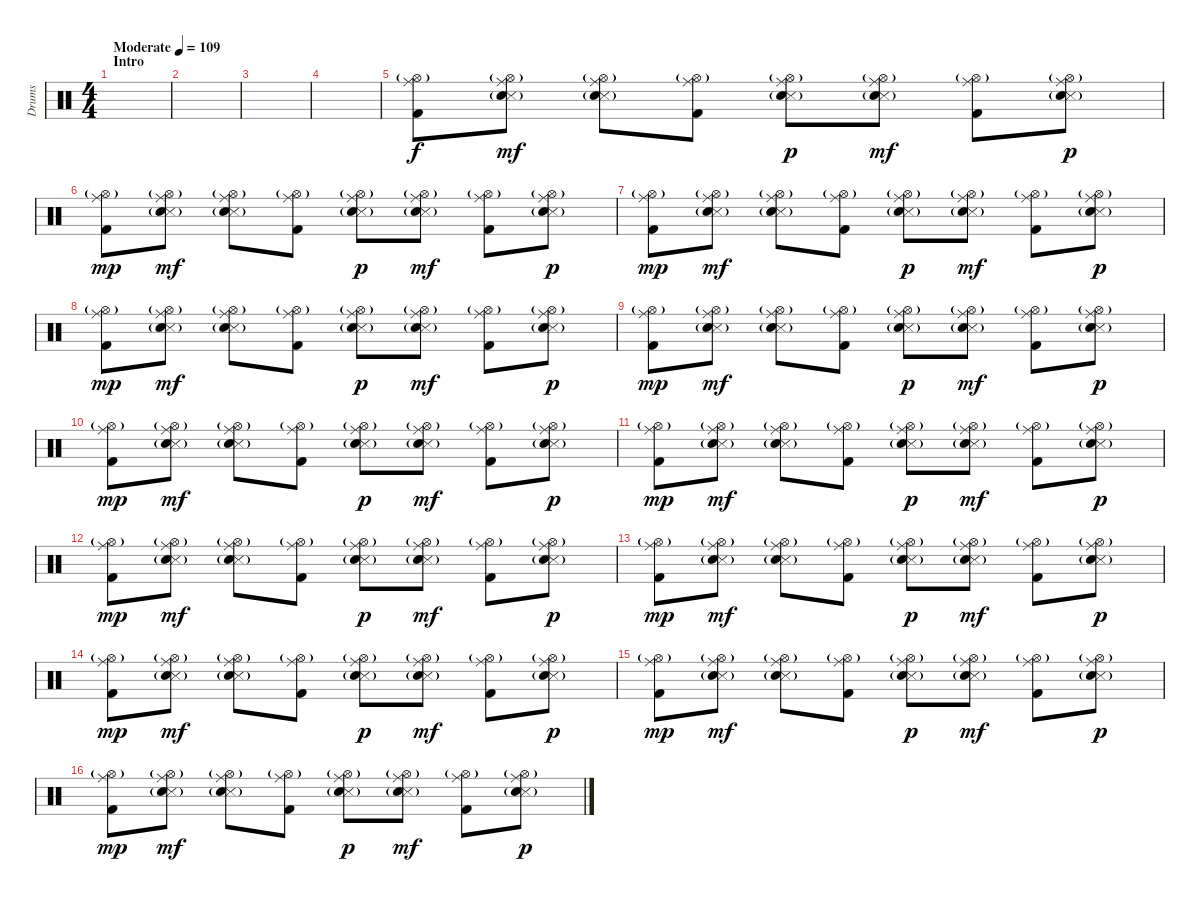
\track ("Drums" "Drums") {instrument percussion}
\staff {score}
\articulation defaults
\ts (4 4)
\section ("" "Intro")
\tempo (109 "Moderate")
\clef neutral
\ks c
|
|
|
|
("Ride (middle)" "Hi-Hat (open)"{g} "Kick (hit) 2").8 ("Ride (middle)" "Hi-Hat (open)"{g} "Snare (side stick) 3" "Snare (hit) 2"{g}).8{dy mf} ("Ride (middle)" "Hi-Hat (open)"{g} "Snare (side stick) 3" "Snare (hit) 2"{g}).8 ("Ride (middle)" "Hi-Hat (open)"{g} "Kick (hit) 2").8 ("Ride (middle)" "Hi-Hat (open)"{g} "Snare (side stick) 3" "Snare (hit) 2"{g}).8{dy p} ("Ride (middle)" "Hi-Hat (open)"{g} "Snare (side stick) 3" "Snare (hit) 2"{g}).8{dy mf} ("Ride (middle)" "Hi-Hat (open)"{g} "Kick (hit) 2").8 ("Ride (middle)" "Hi-Hat (open)"{g} "Snare (side stick) 3" "Snare (hit) 2"{g}).8{dy p} |
("Ride (middle)" "Hi-Hat (open)"{g} "Kick (hit) 2").8{dy mp} ("Ride (middle)" "Hi-Hat (open)"{g} "Snare (side stick) 3" "Snare (hit) 2"{g}).8{dy mf} ("Ride (middle)" "Hi-Hat (open)"{g} "Snare (side stick) 3" "Snare (hit) 2"{g}).8 ("Ride (middle)" "Hi-Hat (open)"{g} "Kick (hit) 2").8 ("Ride (middle)" "Hi-Hat (open)"{g} "Snare (side stick) 3" "Snare (hit) 2"{g}).8{dy p} ("Ride (middle)" "Hi-Hat (open)"{g} "Snare (side stick) 3" "Snare (hit) 2"{g}).8{dy mf} ("Ride (middle)" "Hi-Hat (open)"{g} "Kick (hit) 2").8 ("Ride (middle)" "Hi-Hat (open)"{g} "Snare (side stick) 3" "Snare (hit) 2"{g}).8{dy p} |
("Ride (middle)" "Hi-Hat (open)"{g} "Kick (hit) 2").8{dy mp} ("Ride (middle)" "Hi-Hat (open)"{g} "Snare (side stick) 3" "Snare (hit) 2"{g}).8{dy mf} ("Ride (middle)" "Hi-Hat (open)"{g} "Snare (side stick) 3" "Snare (hit) 2"{g}).8 ("Ride (middle)" "Hi-Hat (open)"{g} "Kick (hit) 2").8 ("Ride (middle)" "Hi-Hat (open)"{g} "Snare (side stick) 3" "Snare (hit) 2"{g}).8{dy p} ("Ride (middle)" "Hi-Hat (open)"{g} "Snare (side stick) 3" "Snare (hit) 2"{g}).8{dy mf} ("Ride (middle)" "Hi-Hat (open)"{g} "Kick (hit) 2").8 ("Ride (middle)" "Hi-Hat (open)"{g} "Snare (side stick) 3" "Snare (hit) 2"{g}).8{dy p} |
("Ride (middle)" "Hi-Hat (open)"{g} "Kick (hit) 2").8{dy mp} ("Ride (middle)" "Hi-Hat (open)"{g} "Snare (side stick) 3" "Snare (hit) 2"{g}).8{dy mf} ("Ride (middle)" "Hi-Hat (open)"{g} "Snare (side stick) 3" "Snare (hit) 2"{g}).8 ("Ride (middle)" "Hi-Hat (open)"{g} "Kick (hit) 2").8 ("Ride (middle)" "Hi-Hat (open)"{g} "Snare (side stick) 3" "Snare (hit) 2"{g}).8{dy p} ("Ride (middle)" "Hi-Hat (open)"{g} "Snare (side stick) 3" "Snare (hit) 2"{g}).8{dy mf} ("Ride (middle)" "Hi-Hat (open)"{g} "Kick (hit) 2").8 ("Ride (middle)" "Hi-Hat (open)"{g} "Snare (side stick) 3" "Snare (hit) 2"{g}).8{dy p} |
("Ride (middle)" "Hi-Hat (open)"{g} "Kick (hit) 2").8{dy mp} ("Ride (middle)" "Hi-Hat (open)"{g} "Snare (side stick) 3" "Snare (hit) 2"{g}).8{dy mf} ("Ride (middle)" "Hi-Hat (open)"{g} "Snare (side stick) 3" "Snare (hit) 2"{g}).8 ("Ride (middle)" "Hi-Hat (open)"{g} "Kick (hit) 2").8 ("Ride (middle)" "Hi-Hat (open)"{g} "Snare (side stick) 3" "Snare (hit) 2"{g}).8{dy p} ("Ride (middle)" "Hi-Hat (open)"{g} "Snare (side stick) 3" "Snare (hit) 2"{g}).8{dy mf} ("Ride (middle)" "Hi-Hat (open)"{g} "Kick (hit) 2").8 ("Ride (middle)" "Hi-Hat (open)"{g} "Snare (side stick) 3" "Snare (hit) 2"{g}).8{dy p} |
("Ride (middle)" "Hi-Hat (open)"{g} "Kick (hit) 2").8{dy mp} ("Ride (middle)" "Hi-Hat (open)"{g} "Snare (side stick) 3" "Snare (hit) 2"{g}).8{dy mf} ("Ride (middle)" "Hi-Hat (open)"{g} "Snare (side stick) 3" "Snare (hit) 2"{g}).8 ("Ride (middle)" "Hi-Hat (open)"{g} "Kick (hit) 2").8 ("Ride (middle)" "Hi-Hat (open)"{g} "Snare (side stick) 3" "Snare (hit) 2"{g}).8{dy p} ("Ride (middle)" "Hi-Hat (open)"{g} "Snare (side stick) 3" "Snare (hit) 2"{g}).8{dy mf} ("Ride (middle)" "Hi-Hat (open)"{g} "Kick (hit) 2").8 ("Ride (middle)" "Hi-Hat (open)"{g} "Snare (side stick) 3" "Snare (hit) 2"{g}).8{dy p} |
("Ride (middle)" "Hi-Hat (open)"{g} "Kick (hit) 2").8{dy mp} ("Ride (middle)" "Hi-Hat (open)"{g} "Snare (side stick) 3" "Snare (hit) 2"{g}).8{dy mf} ("Ride (middle)" "Hi-Hat (open)"{g} "Snare (side stick) 3" "Snare (hit) 2"{g}).8 ("Ride (middle)" "Hi-Hat (open)"{g} "Kick (hit) 2").8 ("Ride (middle)" "Hi-Hat (open)"{g} "Snare (side stick) 3" "Snare (hit) 2"{g}).8{dy p} ("Ride (middle)" "Hi-Hat (open)"{g} "Snare (side stick) 3" "Snare (hit) 2"{g}).8{dy mf} ("Ride (middle)" "Hi-Hat (open)"{g} "Kick (hit) 2").8 ("Ride (middle)" "Hi-Hat (open)"{g} "Snare (side stick) 3" "Snare (hit) 2"{g}).8{dy p} |
("Ride (middle)" "Hi-Hat (open)"{g} "Kick (hit) 2").8{dy mp} ("Ride (middle)" "Hi-Hat (open)"{g} "Snare (side stick) 3" "Snare (hit) 2"{g}).8{dy mf} ("Ride (middle)" "Hi-Hat (open)"{g} "Snare (side stick) 3" "Snare (hit) 2"{g}).8 ("Ride (middle)" "Hi-Hat (open)"{g} "Kick (hit) 2").8 ("Ride (middle)" "Hi-Hat (open)"{g} "Snare (side stick) 3" "Snare (hit) 2"{g}).8{dy p} ("Ride (middle)" "Hi-Hat (open)"{g} "Snare (side stick) 3" "Snare (hit) 2"{g}).8{dy mf} ("Ride (middle)" "Hi-Hat (open)"{g} "Kick (hit) 2").8 ("Ride (middle)" "Hi-Hat (open)"{g} "Snare (side stick) 3" "Snare (hit) 2"{g}).8{dy p} |
("Ride (middle)" "Hi-Hat (open)"{g} "Kick (hit) 2").8{dy mp} ("Ride (middle)" "Hi-Hat (open)"{g} "Snare (side stick) 3" "Snare (hit) 2"{g}).8{dy mf} ("Ride (middle)" "Hi-Hat (open)"{g} "Snare (side stick) 3" "Snare (hit) 2"{g}).8 ("Ride (middle)" "Hi-Hat (open)"{g} "Kick (hit) 2").8 ("Ride (middle)" "Hi-Hat (open)"{g} "Snare (side stick) 3" "Snare (hit) 2"{g}).8{dy p} ("Ride (middle)" "Hi-Hat (open)"{g} "Snare (side stick) 3" "Snare (hit) 2"{g}).8{dy mf} ("Ride (middle)" "Hi-Hat (open)"{g} "Kick (hit) 2").8 ("Ride (middle)" "Hi-Hat (open)"{g} "Snare (side stick) 3" "Snare (hit) 2"{g}).8{dy p} |
("Ride (middle)" "Hi-Hat (open)"{g} "Kick (hit) 2").8{dy mp} ("Ride (middle)" "Hi-Hat (open)"{g} "Snare (side stick) 3" "Snare (hit) 2"{g}).8{dy mf} ("Ride (middle)" "Hi-Hat (open)"{g} "Snare (side stick) 3" "Snare (hit) 2"{g}).8 ("Ride (middle)" "Hi-Hat (open)"{g} "Kick (hit) 2").8 ("Ride (middle)" "Hi-Hat (open)"{g} "Snare (side stick) 3" "Snare (hit) 2"{g}).8{dy p} ("Ride (middle)" "Hi-Hat (open)"{g} "Snare (side stick) 3" "Snare (hit) 2"{g}).8{dy mf} ("Ride (middle)" "Hi-Hat (open)"{g} "Kick (hit) 2").8 ("Ride (middle)" "Hi-Hat (open)"{g} "Snare (side stick) 3" "Snare (hit) 2"{g}).8{dy p} |
("Ride (middle)" "Hi-Hat (open)"{g} "Kick (hit) 2").8{dy mp} ("Ride (middle)" "Hi-Hat (open)"{g} "Snare (side stick) 3" "Snare (hit) 2"{g}).8{dy mf} ("Ride (middle)" "Hi-Hat (open)"{g} "Snare (side stick) 3" "Snare (hit) 2"{g}).8 ("Ride (middle)" "Hi-Hat (open)"{g} "Kick (hit) 2").8 ("Ride (middle)" "Hi-Hat (open)"{g} "Snare (side stick) 3" "Snare (hit) 2"{g}).8{dy p} ("Ride (middle)" "Hi-Hat (open)"{g} "Snare (side stick) 3" "Snare (hit) 2"{g}).8{dy mf} ("Ride (middle)" "Hi-Hat (open)"{g} "Kick (hit) 2").8 ("Ride (middle)" "Hi-Hat (open)"{g} "Snare (side stick) 3" "Snare (hit) 2"{g}).8{dy p} |
("Ride (middle)" "Hi-Hat (open)"{g} "Kick (hit) 2").8{dy mp} ("Ride (middle)" "Hi-Hat (open)"{g} "Snare (side stick) 3" "Snare (hit) 2"{g}).8{dy mf} ("Ride (middle)" "Hi-Hat (open)"{g} "Snare (side stick) 3" "Snare (hit) 2"{g}).8 ("Ride (middle)" "Hi-Hat (open)"{g} "Kick (hit) 2").8 ("Ride (middle)" "Hi-Hat (open)"{g} "Snare (side stick) 3" "Snare (hit) 2"{g}).8{dy p} ("Ride (middle)" "Hi-Hat (open)"{g} "Snare (side stick) 3" "Snare (hit) 2"{g}).8{dy mf} ("Ride (middle)" "Hi-Hat (open)"{g} "Kick (hit) 2").8 ("Ride (middle)" "Hi-Hat (open)"{g} "Snare (side stick) 3" "Snare (hit) 2"{g}).8{dy p}
